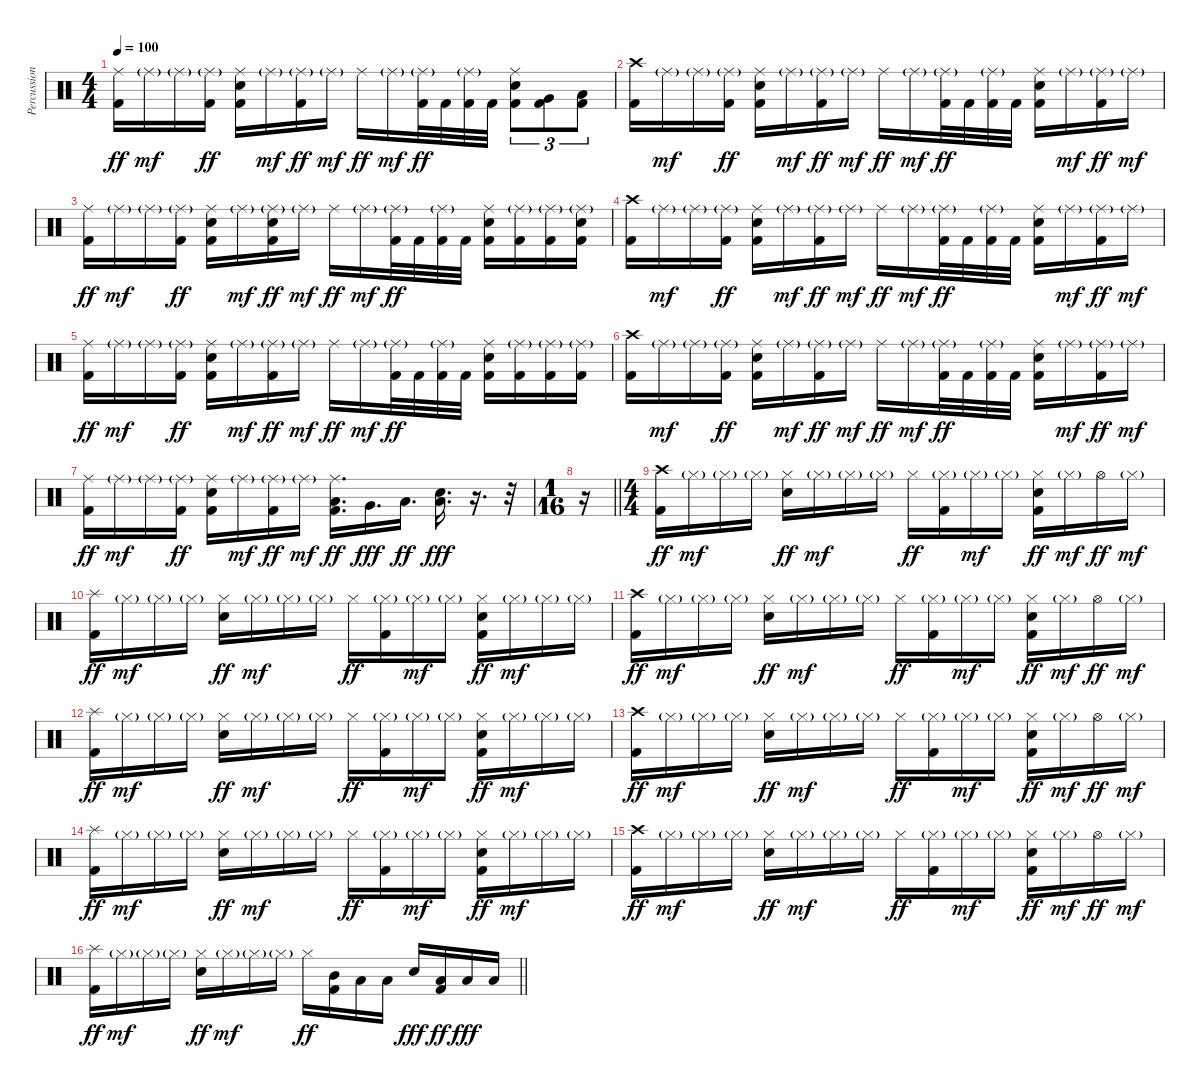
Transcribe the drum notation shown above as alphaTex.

\track ("Percussion" "Percussion") {instrument percussion}
\staff {score}
\articulation defaults
\ts (4 4)
\tempo 100
\clef neutral
\ks c
("Ride (middle)" "Kick (hit) 2").16{dy ff} "Ride (middle)"{g}.16{dy mf} "Ride (middle)"{g}.16 ("Ride (middle)"{g} "Kick (hit) 2").16{dy ff} ("Ride (middle)" "Snare (hit) 2" "Kick (hit) 2").16 "Ride (middle)"{g}.16{dy mf} ("Ride (middle)"{g} "Kick (hit) 2").16{dy ff} "Ride (middle)"{g}.16{dy mf} "Ride (middle)".16{dy ff} "Ride (middle)"{g}.16{dy mf} ("Ride (middle)"{g} "Kick (hit) 2").32{dy ff} "Kick (hit) 2".32 ("Ride (middle)"{g} "Kick (hit) 2").32 "Kick (hit) 2".32 ("Ride (middle)" "Snare (hit) 2" "Kick (hit) 2").8{tu (3 2)} ("Very Low Tom (hit)" "Kick (hit) 2").8{tu (3 2)} ("Low Floor Tom (hit)" "Kick (hit) 2").8{tu (3 2)} |
("Crash high (hit)" "Kick (hit) 2").16 "Ride (middle)"{g}.16{dy mf} "Ride (middle)"{g}.16 ("Ride (middle)"{g} "Kick (hit) 2").16{dy ff} ("Ride (middle)" "Snare (hit) 2" "Kick (hit) 2").16 "Ride (middle)"{g}.16{dy mf} ("Ride (middle)"{g} "Kick (hit) 2").16{dy ff} "Ride (middle)"{g}.16{dy mf} "Ride (middle)".16{dy ff} "Ride (middle)"{g}.16{dy mf} ("Ride (middle)"{g} "Kick (hit) 2").32{dy ff} "Kick (hit) 2".32 ("Ride (middle)"{g} "Kick (hit) 2").32 "Kick (hit) 2".32 ("Ride (middle)" "Snare (hit) 2" "Kick (hit) 2").16 "Ride (middle)"{g}.16{dy mf} ("Ride (middle)"{g} "Kick (hit) 2").16{dy ff} "Ride (middle)"{g}.16{dy mf} |
("Ride (middle)" "Kick (hit) 2").16{dy ff} "Ride (middle)"{g}.16{dy mf} "Ride (middle)"{g}.16 ("Ride (middle)"{g} "Kick (hit) 2").16{dy ff} ("Ride (middle)" "Snare (hit) 2" "Kick (hit) 2").16 "Ride (middle)"{g}.16{dy mf} ("Ride (middle)"{g} "Snare (hit) 2" "Kick (hit) 2").16{dy ff} "Ride (middle)"{g}.16{dy mf} "Ride (middle)".16{dy ff} "Ride (middle)"{g}.16{dy mf} ("Ride (middle)"{g} "Kick (hit) 2").32{dy ff} "Kick (hit) 2".32 ("Ride (middle)"{g} "Kick (hit) 2").32 "Kick (hit) 2".32 ("Ride (middle)" "Snare (hit) 2" "Kick (hit) 2").16 ("Ride (middle)"{g} "Kick (hit) 2").16 ("Ride (middle)"{g} "Kick (hit) 2").16 ("Ride (middle)"{g} "Snare (hit) 2" "Kick (hit) 2").16 |
("Crash high (hit)" "Kick (hit) 2").16 "Ride (middle)"{g}.16{dy mf} "Ride (middle)"{g}.16 ("Ride (middle)"{g} "Kick (hit) 2").16{dy ff} ("Ride (middle)" "Snare (hit) 2" "Kick (hit) 2").16 "Ride (middle)"{g}.16{dy mf} ("Ride (middle)"{g} "Kick (hit) 2").16{dy ff} "Ride (middle)"{g}.16{dy mf} "Ride (middle)".16{dy ff} "Ride (middle)"{g}.16{dy mf} ("Ride (middle)"{g} "Kick (hit) 2").32{dy ff} "Kick (hit) 2".32 ("Ride (middle)"{g} "Kick (hit) 2").32 "Kick (hit) 2".32 ("Ride (middle)" "Snare (hit) 2" "Kick (hit) 2").16 "Ride (middle)"{g}.16{dy mf} ("Ride (middle)"{g} "Kick (hit) 2").16{dy ff} "Ride (middle)"{g}.16{dy mf} |
("Ride (middle)" "Kick (hit) 2").16{dy ff} "Ride (middle)"{g}.16{dy mf} "Ride (middle)"{g}.16 ("Ride (middle)"{g} "Kick (hit) 2").16{dy ff} ("Ride (middle)" "Snare (hit) 2" "Kick (hit) 2").16 "Ride (middle)"{g}.16{dy mf} ("Ride (middle)"{g} "Kick (hit) 2").16{dy ff} "Ride (middle)"{g}.16{dy mf} "Ride (middle)".16{dy ff} "Ride (middle)"{g}.16{dy mf} ("Ride (middle)"{g} "Kick (hit) 2").32{dy ff} "Kick (hit) 2".32 ("Ride (middle)"{g} "Kick (hit) 2").32 "Kick (hit) 2".32 ("Ride (middle)" "Snare (hit) 2" "Kick (hit) 2").16 ("Ride (middle)"{g} "Kick (hit) 2").16 ("Ride (middle)"{g} "Kick (hit) 2").16 ("Ride (middle)"{g} "Kick (hit) 2").16 |
("Crash high (hit)" "Kick (hit) 2").16 "Ride (middle)"{g}.16{dy mf} "Ride (middle)"{g}.16 ("Ride (middle)"{g} "Kick (hit) 2").16{dy ff} ("Ride (middle)" "Snare (hit) 2" "Kick (hit) 2").16 "Ride (middle)"{g}.16{dy mf} ("Ride (middle)"{g} "Kick (hit) 2").16{dy ff} "Ride (middle)"{g}.16{dy mf} "Ride (middle)".16{dy ff} "Ride (middle)"{g}.16{dy mf} ("Ride (middle)"{g} "Kick (hit) 2").32{dy ff} "Kick (hit) 2".32 ("Ride (middle)"{g} "Kick (hit) 2").32 "Kick (hit) 2".32 ("Ride (middle)" "Snare (hit) 2" "Kick (hit) 2").16 "Ride (middle)"{g}.16{dy mf} ("Ride (middle)"{g} "Kick (hit) 2").16{dy ff} "Ride (middle)"{g}.16{dy mf} |
("Ride (middle)" "Kick (hit) 2").16{dy ff} "Ride (middle)"{g}.16{dy mf} "Ride (middle)"{g}.16 ("Ride (middle)"{g} "Kick (hit) 2").16{dy ff} ("Ride (middle)" "Snare (hit) 2" "Kick (hit) 2").16 "Ride (middle)"{g}.16{dy mf} ("Ride (middle)"{g} "Kick (hit) 2").16{dy ff} "Ride (middle)"{g}.16{dy mf} ("Ride (middle)" "Low Tom (hit)" "Kick (hit) 2").16{d dy ff} "Very Low Tom (hit)".16{d dy fff} "Low Floor Tom (hit)".16{d dy ff} ("Low Floor Tom (hit)" "Snare (hit) 2").16{d dy fff} r.16{d} r.32 |
\ts (1 16)
\barLineRight lightlight
r.16 |
\ts (4 4)
("Crash high (hit)" "Kick (hit) 2").16{dy ff} "Hi-Hat (closed)"{g}.16{dy mf} "Hi-Hat (closed)"{g}.16 "Hi-Hat (closed)"{g}.16 ("Hi-Hat (closed)" "Snare (hit) 2").16{dy ff} "Hi-Hat (closed)"{g}.16{dy mf} "Hi-Hat (closed)"{g}.16 "Hi-Hat (closed)"{g}.16 "Hi-Hat (closed)".16{dy ff} ("Hi-Hat (closed)"{g} "Kick (hit) 2").16 "Hi-Hat (closed)"{g}.16{dy mf} "Hi-Hat (closed)"{g}.16 ("Hi-Hat (closed)" "Snare (hit) 2" "Kick (hit) 2").16{dy ff} "Hi-Hat (closed)"{g}.16{dy mf} "Hi-Hat (open)".16{dy ff} "Hi-Hat (closed)"{g}.16{dy mf} |
("Splash (hit)" "Kick (hit) 2").16{dy ff} "Hi-Hat (closed)"{g}.16{dy mf} "Hi-Hat (closed)"{g}.16 "Hi-Hat (closed)"{g}.16 ("Hi-Hat (closed)" "Snare (hit) 2").16{dy ff} "Hi-Hat (closed)"{g}.16{dy mf} "Hi-Hat (closed)"{g}.16 "Hi-Hat (closed)"{g}.16 "Hi-Hat (closed)".16{dy ff} ("Hi-Hat (closed)"{g} "Kick (hit) 2").16 "Hi-Hat (closed)"{g}.16{dy mf} "Hi-Hat (closed)"{g}.16 ("Hi-Hat (closed)" "Snare (hit) 2" "Kick (hit) 2").16{dy ff} "Hi-Hat (closed)"{g}.16{dy mf} "Hi-Hat (closed)"{g}.16 "Hi-Hat (closed)"{g}.16 |
("Crash high (hit)" "Kick (hit) 2").16{dy ff} "Hi-Hat (closed)"{g}.16{dy mf} "Hi-Hat (closed)"{g}.16 "Hi-Hat (closed)"{g}.16 ("Hi-Hat (closed)" "Snare (hit) 2").16{dy ff} "Hi-Hat (closed)"{g}.16{dy mf} "Hi-Hat (closed)"{g}.16 "Hi-Hat (closed)"{g}.16 "Hi-Hat (closed)".16{dy ff} ("Hi-Hat (closed)"{g} "Kick (hit) 2").16 "Hi-Hat (closed)"{g}.16{dy mf} "Hi-Hat (closed)"{g}.16 ("Hi-Hat (closed)" "Snare (hit) 2" "Kick (hit) 2").16{dy ff} "Hi-Hat (closed)"{g}.16{dy mf} "Hi-Hat (open)".16{dy ff} "Hi-Hat (closed)"{g}.16{dy mf} |
("Splash (hit)" "Kick (hit) 2").16{dy ff} "Hi-Hat (closed)"{g}.16{dy mf} "Hi-Hat (closed)"{g}.16 "Hi-Hat (closed)"{g}.16 ("Hi-Hat (closed)" "Snare (hit) 2").16{dy ff} "Hi-Hat (closed)"{g}.16{dy mf} "Hi-Hat (closed)"{g}.16 "Hi-Hat (closed)"{g}.16 "Hi-Hat (closed)".16{dy ff} ("Hi-Hat (closed)"{g} "Kick (hit) 2").16 "Hi-Hat (closed)"{g}.16{dy mf} "Hi-Hat (closed)"{g}.16 ("Hi-Hat (closed)" "Snare (hit) 2" "Kick (hit) 2").16{dy ff} "Hi-Hat (closed)"{g}.16{dy mf} "Hi-Hat (closed)"{g}.16 "Hi-Hat (closed)"{g}.16 |
("Crash high (hit)" "Kick (hit) 2").16{dy ff} "Hi-Hat (closed)"{g}.16{dy mf} "Hi-Hat (closed)"{g}.16 "Hi-Hat (closed)"{g}.16 ("Hi-Hat (closed)" "Snare (hit) 2").16{dy ff} "Hi-Hat (closed)"{g}.16{dy mf} "Hi-Hat (closed)"{g}.16 "Hi-Hat (closed)"{g}.16 "Hi-Hat (closed)".16{dy ff} ("Hi-Hat (closed)"{g} "Kick (hit) 2").16 "Hi-Hat (closed)"{g}.16{dy mf} "Hi-Hat (closed)"{g}.16 ("Hi-Hat (closed)" "Snare (hit) 2" "Kick (hit) 2").16{dy ff} "Hi-Hat (closed)"{g}.16{dy mf} "Hi-Hat (open)".16{dy ff} "Hi-Hat (closed)"{g}.16{dy mf} |
("Splash (hit)" "Kick (hit) 2").16{dy ff} "Hi-Hat (closed)"{g}.16{dy mf} "Hi-Hat (closed)"{g}.16 "Hi-Hat (closed)"{g}.16 ("Hi-Hat (closed)" "Snare (hit) 2").16{dy ff} "Hi-Hat (closed)"{g}.16{dy mf} "Hi-Hat (closed)"{g}.16 "Hi-Hat (closed)"{g}.16 "Hi-Hat (closed)".16{dy ff} ("Hi-Hat (closed)"{g} "Kick (hit) 2").16 "Hi-Hat (closed)"{g}.16{dy mf} "Hi-Hat (closed)"{g}.16 ("Hi-Hat (closed)" "Snare (hit) 2" "Kick (hit) 2").16{dy ff} "Hi-Hat (closed)"{g}.16{dy mf} "Hi-Hat (closed)"{g}.16 "Hi-Hat (closed)"{g}.16 |
("Crash high (hit)" "Kick (hit) 2").16{dy ff} "Hi-Hat (closed)"{g}.16{dy mf} "Hi-Hat (closed)"{g}.16 "Hi-Hat (closed)"{g}.16 ("Hi-Hat (closed)" "Snare (hit) 2").16{dy ff} "Hi-Hat (closed)"{g}.16{dy mf} "Hi-Hat (closed)"{g}.16 "Hi-Hat (closed)"{g}.16 "Hi-Hat (closed)".16{dy ff} ("Hi-Hat (closed)"{g} "Kick (hit) 2").16 "Hi-Hat (closed)"{g}.16{dy mf} "Hi-Hat (closed)"{g}.16 ("Hi-Hat (closed)" "Snare (hit) 2" "Kick (hit) 2").16{dy ff} "Hi-Hat (closed)"{g}.16{dy mf} "Hi-Hat (open)".16{dy ff} "Hi-Hat (closed)"{g}.16{dy mf} |
\barLineRight lightlight
("Splash (hit)" "Kick (hit) 2").16{dy ff} "Hi-Hat (closed)"{g}.16{dy mf} "Hi-Hat (closed)"{g}.16 "Hi-Hat (closed)"{g}.16 ("Hi-Hat (closed)" "Snare (hit) 2").16{dy ff} "Hi-Hat (closed)"{g}.16{dy mf} "Hi-Hat (closed)"{g}.16 "Hi-Hat (closed)"{g}.16 "Hi-Hat (closed)".16{dy ff} ("Mid Tom (hit)" "Kick (hit) 2").16 "Low Tom (hit)".16 "Low Floor Tom (hit)".16 "Snare (hit) 2".16{dy fff} ("Low Floor Tom (hit)" "Kick (hit) 2").16{dy ff} "Low Floor Tom (hit)".16{dy fff} "Low Floor Tom (hit)".16
